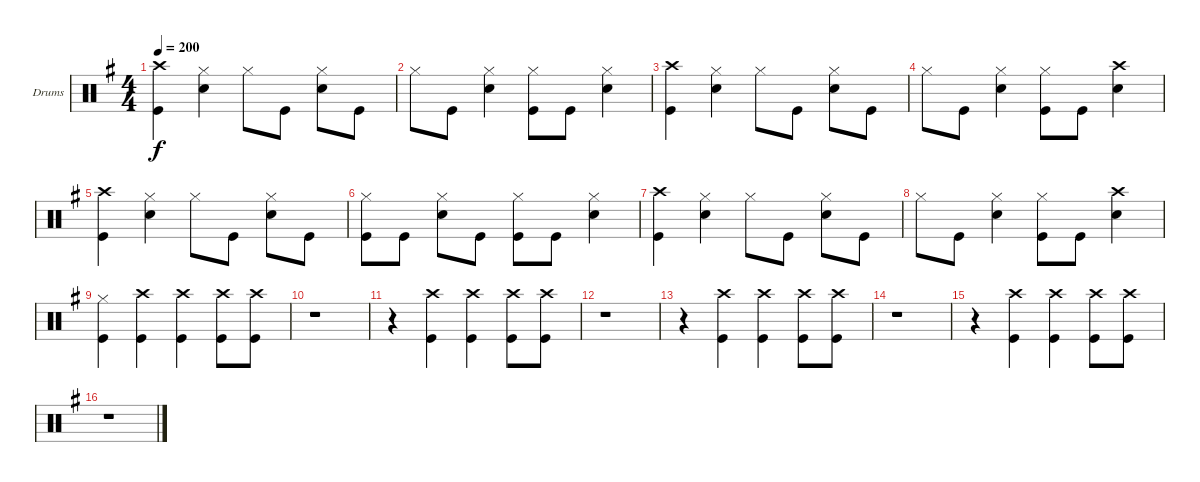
\bracketExtendMode groupsimilarinstruments
\firstSystemTrackNameOrientation horizontal
\otherSystemsTrackNameOrientation horizontal
\track ("Drumkit" "Drums") {instrument percussion}
\staff {score}
\articulation defaults
\ts (4 4)
\tempo 200
\clef neutral
\ks g
("Kick (hit)" "Crash high (hit)").4{dy f} ("Hi-Hat (closed)" "Snare (hit) 2").4 "Hi-Hat (closed)".8 "Kick (hit)".8 ("Snare (hit) 2" "Hi-Hat (closed)").8 "Kick (hit)".8 |
"Hi-Hat (closed)".8 "Kick (hit)".8 ("Snare (hit) 2" "Hi-Hat (closed)").4 ("Hi-Hat (closed)" "Kick (hit)").8 "Kick (hit)".8 ("Snare (hit) 2" "Hi-Hat (closed)").4 |
("Kick (hit)" "Crash high (hit)").4 ("Hi-Hat (closed)" "Snare (hit) 2").4 "Hi-Hat (closed)".8 "Kick (hit)".8 ("Snare (hit) 2" "Hi-Hat (closed)").8 "Kick (hit)".8 |
"Hi-Hat (closed)".8 "Kick (hit)".8 ("Snare (hit) 2" "Hi-Hat (closed)").4 ("Hi-Hat (closed)" "Kick (hit)").8 "Kick (hit)".8 ("Crash high (hit)" "Snare (hit) 2").4 |
("Kick (hit)" "Crash high (hit)").4 ("Hi-Hat (closed)" "Snare (hit) 2").4 "Hi-Hat (closed)".8 "Kick (hit)".8 ("Snare (hit) 2" "Hi-Hat (closed)").8 "Kick (hit)".8 |
("Hi-Hat (closed)" "Kick (hit)").8 "Kick (hit)".8 ("Snare (hit) 2" "Hi-Hat (closed)").8 "Kick (hit)".8 ("Hi-Hat (closed)" "Kick (hit)").8 "Kick (hit)".8 ("Snare (hit) 2" "Hi-Hat (closed)").4 |
("Kick (hit)" "Crash high (hit)").4 ("Hi-Hat (closed)" "Snare (hit) 2").4 "Hi-Hat (closed)".8 "Kick (hit)".8 ("Snare (hit) 2" "Hi-Hat (closed)").8 "Kick (hit)".8 |
"Hi-Hat (closed)".8 "Kick (hit)".8 ("Snare (hit) 2" "Hi-Hat (closed)").4 ("Hi-Hat (closed)" "Kick (hit)").8 "Kick (hit)".8 ("Crash high (hit)" "Snare (hit) 2").4 |
("Kick (hit)" "Hi-Hat (closed)").4 ("Crash high (hit)" "Kick (hit)").4 ("Crash high (hit)" "Kick (hit)").4 ("Kick (hit)" "Crash high (hit)").8 ("Kick (hit)" "Crash high (hit)").8 |
r.1 |
r.4 ("Kick (hit)" "Crash high (hit)").4 ("Kick (hit)" "Crash high (hit)").4 ("Kick (hit)" "Crash high (hit)").8 ("Kick (hit)" "Crash high (hit)").8 |
r.1 |
r.4 ("Crash high (hit)" "Kick (hit)").4 ("Crash high (hit)" "Kick (hit)").4 ("Kick (hit)" "Crash high (hit)").8 ("Kick (hit)" "Crash high (hit)").8 |
r.1 |
r.4 ("Kick (hit)" "Crash high (hit)").4 ("Kick (hit)" "Crash high (hit)").4 ("Kick (hit)" "Crash high (hit)").8 ("Kick (hit)" "Crash high (hit)").8 |
r.1
